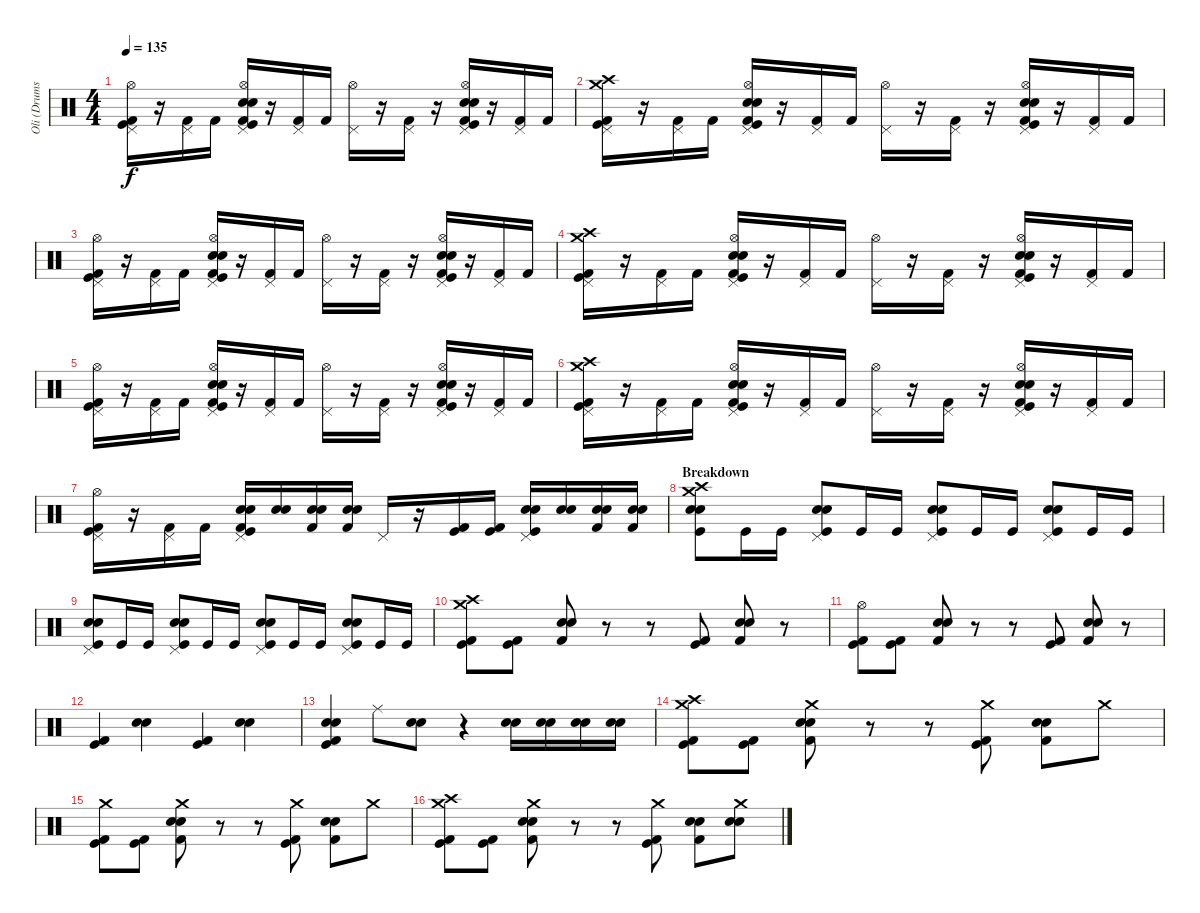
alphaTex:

\track ("Oli (Drums)" "Oli (Drums") {instrument percussion}
\staff {score}
\articulation defaults
\ts (4 4)
\tempo 135
\clef neutral
\ks c
("Kick (hit) 2" "Kick (hit)" "Pedal Hi-Hat (hit)" "Hi-Hat (open)").16{dy f} r.16 ("Kick (hit) 2" "Pedal Hi-Hat (hit)").16 "Kick (hit) 2".16 ("Kick (hit) 2" "Snare (hit) 2" "Pedal Hi-Hat (hit)" "Electric Snare (hit)" "Kick (hit)" "Hi-Hat (open)").16 r.16 ("Kick (hit) 2" "Pedal Hi-Hat (hit)").16 "Kick (hit) 2".16 ("Pedal Hi-Hat (hit)" "Hi-Hat (open)").16 r.16 ("Kick (hit) 2" "Pedal Hi-Hat (hit)").16 r.16 ("Kick (hit) 2" "Snare (hit) 2" "Pedal Hi-Hat (hit)" "Electric Snare (hit)" "Kick (hit)" "Hi-Hat (open)").16 r.16 ("Kick (hit) 2" "Pedal Hi-Hat (hit)").16 "Kick (hit) 2".16 |
("Kick (hit) 2" "Kick (hit)" "Pedal Hi-Hat (hit)" "Crash medium (hit)" "Crash high (hit)").16 r.16 ("Kick (hit) 2" "Pedal Hi-Hat (hit)").16 "Kick (hit) 2".16 ("Kick (hit) 2" "Snare (hit) 2" "Pedal Hi-Hat (hit)" "Electric Snare (hit)" "Kick (hit)" "Hi-Hat (open)").16 r.16 ("Kick (hit) 2" "Pedal Hi-Hat (hit)").16 "Kick (hit) 2".16 ("Pedal Hi-Hat (hit)" "Hi-Hat (open)").16 r.16 ("Kick (hit) 2" "Pedal Hi-Hat (hit)").16 r.16 ("Kick (hit) 2" "Snare (hit) 2" "Pedal Hi-Hat (hit)" "Electric Snare (hit)" "Kick (hit)" "Hi-Hat (open)").16 r.16 ("Kick (hit) 2" "Pedal Hi-Hat (hit)").16 "Kick (hit) 2".16 |
("Kick (hit) 2" "Kick (hit)" "Pedal Hi-Hat (hit)" "Hi-Hat (open)").16 r.16 ("Kick (hit) 2" "Pedal Hi-Hat (hit)").16 "Kick (hit) 2".16 ("Kick (hit) 2" "Snare (hit) 2" "Pedal Hi-Hat (hit)" "Electric Snare (hit)" "Kick (hit)" "Hi-Hat (open)").16 r.16 ("Kick (hit) 2" "Pedal Hi-Hat (hit)").16 "Kick (hit) 2".16 ("Pedal Hi-Hat (hit)" "Hi-Hat (open)").16 r.16 ("Kick (hit) 2" "Pedal Hi-Hat (hit)").16 r.16 ("Kick (hit) 2" "Snare (hit) 2" "Pedal Hi-Hat (hit)" "Electric Snare (hit)" "Kick (hit)" "Hi-Hat (open)").16 r.16 ("Kick (hit) 2" "Pedal Hi-Hat (hit)").16 "Kick (hit) 2".16 |
("Kick (hit) 2" "Kick (hit)" "Pedal Hi-Hat (hit)" "Crash medium (hit)" "Crash high (hit)").16 r.16 ("Kick (hit) 2" "Pedal Hi-Hat (hit)").16 "Kick (hit) 2".16 ("Kick (hit) 2" "Snare (hit) 2" "Pedal Hi-Hat (hit)" "Electric Snare (hit)" "Kick (hit)" "Hi-Hat (open)").16 r.16 ("Kick (hit) 2" "Pedal Hi-Hat (hit)").16 "Kick (hit) 2".16 ("Pedal Hi-Hat (hit)" "Hi-Hat (open)").16 r.16 ("Kick (hit) 2" "Pedal Hi-Hat (hit)").16 r.16 ("Kick (hit) 2" "Snare (hit) 2" "Pedal Hi-Hat (hit)" "Electric Snare (hit)" "Kick (hit)" "Hi-Hat (open)").16 r.16 ("Kick (hit) 2" "Pedal Hi-Hat (hit)").16 "Kick (hit) 2".16 |
("Kick (hit) 2" "Kick (hit)" "Pedal Hi-Hat (hit)" "Hi-Hat (open)").16 r.16 ("Kick (hit) 2" "Pedal Hi-Hat (hit)").16 "Kick (hit) 2".16 ("Kick (hit) 2" "Snare (hit) 2" "Pedal Hi-Hat (hit)" "Electric Snare (hit)" "Kick (hit)" "Hi-Hat (open)").16 r.16 ("Kick (hit) 2" "Pedal Hi-Hat (hit)").16 "Kick (hit) 2".16 ("Pedal Hi-Hat (hit)" "Hi-Hat (open)").16 r.16 ("Kick (hit) 2" "Pedal Hi-Hat (hit)").16 r.16 ("Kick (hit) 2" "Snare (hit) 2" "Pedal Hi-Hat (hit)" "Electric Snare (hit)" "Kick (hit)" "Hi-Hat (open)").16 r.16 ("Kick (hit) 2" "Pedal Hi-Hat (hit)").16 "Kick (hit) 2".16 |
("Kick (hit) 2" "Kick (hit)" "Pedal Hi-Hat (hit)" "Crash medium (hit)" "Crash high (hit)").16 r.16 ("Kick (hit) 2" "Pedal Hi-Hat (hit)").16 "Kick (hit) 2".16 ("Kick (hit) 2" "Snare (hit) 2" "Pedal Hi-Hat (hit)" "Electric Snare (hit)" "Kick (hit)" "Hi-Hat (open)").16 r.16 ("Kick (hit) 2" "Pedal Hi-Hat (hit)").16 "Kick (hit) 2".16 ("Pedal Hi-Hat (hit)" "Hi-Hat (open)").16 r.16 ("Kick (hit) 2" "Pedal Hi-Hat (hit)").16 r.16 ("Kick (hit) 2" "Snare (hit) 2" "Pedal Hi-Hat (hit)" "Electric Snare (hit)" "Kick (hit)" "Hi-Hat (open)").16 r.16 ("Kick (hit) 2" "Pedal Hi-Hat (hit)").16 "Kick (hit) 2".16 |
("Kick (hit) 2" "Kick (hit)" "Pedal Hi-Hat (hit)" "Hi-Hat (open)").16 r.16 ("Kick (hit) 2" "Pedal Hi-Hat (hit)").16 "Kick (hit) 2".16 ("Kick (hit) 2" "Snare (hit) 2" "Pedal Hi-Hat (hit)" "Electric Snare (hit)" "Kick (hit)").16 ("Snare (hit) 2" "Electric Snare (hit)").16 ("Kick (hit) 2" "Snare (hit) 2" "Electric Snare (hit)").16 ("Kick (hit) 2" "Snare (hit) 2" "Electric Snare (hit)").16 "Pedal Hi-Hat (hit)".16 r.16 ("Kick (hit)" "Kick (hit) 2").16 ("Kick (hit)" "Kick (hit) 2").16 ("Snare (hit) 2" "Pedal Hi-Hat (hit)" "Electric Snare (hit)" "Kick (hit)").16 ("Electric Snare (hit)" "Snare (hit) 2").16 ("Kick (hit) 2" "Electric Snare (hit)" "Snare (hit) 2").16 ("Kick (hit) 2" "Electric Snare (hit)" "Snare (hit) 2").16 |
\section ("" "Breakdown")
("Electric Snare (hit)" "Kick (hit)" "Snare (hit) 2" "Crash high (hit)" "Crash medium (hit)").8 "Kick (hit)".16 "Kick (hit)".16 ("Electric Snare (hit)" "Kick (hit)" "Snare (hit) 2" "Pedal Hi-Hat (hit)").8 "Kick (hit)".16 "Kick (hit)".16 ("Electric Snare (hit)" "Kick (hit)" "Snare (hit) 2" "Pedal Hi-Hat (hit)").8 "Kick (hit)".16 "Kick (hit)".16 ("Electric Snare (hit)" "Kick (hit)" "Snare (hit) 2" "Pedal Hi-Hat (hit)").8 "Kick (hit)".16 "Kick (hit)".16 |
("Electric Snare (hit)" "Kick (hit)" "Snare (hit) 2" "Pedal Hi-Hat (hit)").8 "Kick (hit)".16 "Kick (hit)".16 ("Electric Snare (hit)" "Kick (hit)" "Snare (hit) 2" "Pedal Hi-Hat (hit)").8 "Kick (hit)".16 "Kick (hit)".16 ("Electric Snare (hit)" "Kick (hit)" "Snare (hit) 2" "Pedal Hi-Hat (hit)").8 "Kick (hit)".16 "Kick (hit)".16 ("Electric Snare (hit)" "Kick (hit)" "Snare (hit) 2" "Pedal Hi-Hat (hit)").8 "Kick (hit)".16 "Kick (hit)".16 |
("Kick (hit) 2" "Kick (hit)" "Crash medium (hit)" "Crash high (hit)").8 ("Kick (hit) 2" "Kick (hit)").8 ("Kick (hit) 2" "Electric Snare (hit)" "Snare (hit) 2").8 r.8 r.8 ("Kick (hit) 2" "Kick (hit)").8 ("Kick (hit) 2" "Electric Snare (hit)" "Snare (hit) 2").8 r.8 |
("Kick (hit) 2" "Kick (hit)" "Hi-Hat (open)").8 ("Kick (hit) 2" "Kick (hit)").8 ("Kick (hit) 2" "Electric Snare (hit)" "Snare (hit) 2").8 r.8 r.8 ("Kick (hit) 2" "Kick (hit)").8 ("Kick (hit) 2" "Electric Snare (hit)" "Snare (hit) 2").8 r.8 |
("Kick (hit) 2" "Kick (hit)").4 ("Snare (hit) 2" "Electric Snare (hit)").4 ("Kick (hit) 2" "Kick (hit)").4 ("Snare (hit) 2" "Electric Snare (hit)").4 |
("Kick (hit) 2" "Snare (hit) 2" "Electric Snare (hit)" "Kick (hit)").4 "Ride (middle)".8 ("Snare (hit) 2" "Electric Snare (hit)").8 r.4 ("Snare (hit) 2" "Electric Snare (hit)").16 ("Snare (hit) 2" "Electric Snare (hit)").16 ("Snare (hit) 2" "Electric Snare (hit)").16 ("Snare (hit) 2" "Electric Snare (hit)").16 |
("Kick (hit) 2" "Kick (hit)" "Crash medium (hit)" "Crash high (hit)").8 ("Kick (hit) 2" "Kick (hit)").8 ("Kick (hit) 2" "Electric Snare (hit)" "Snare (hit) 2" "Crash medium (hit)").8 r.8 r.8 ("Kick (hit) 2" "Kick (hit)" "Crash medium (hit)").8 ("Kick (hit) 2" "Electric Snare (hit)" "Snare (hit) 2").8 "Crash medium (hit)".8 |
("Kick (hit) 2" "Kick (hit)" "Crash medium (hit)").8 ("Kick (hit) 2" "Kick (hit)").8 ("Kick (hit) 2" "Electric Snare (hit)" "Snare (hit) 2" "Crash medium (hit)").8 r.8 r.8 ("Kick (hit) 2" "Kick (hit)" "Crash medium (hit)").8 ("Kick (hit) 2" "Electric Snare (hit)" "Snare (hit) 2").8 "Crash medium (hit)".8 |
("Kick (hit) 2" "Kick (hit)" "Crash medium (hit)" "Crash high (hit)").8 ("Kick (hit) 2" "Kick (hit)").8 ("Kick (hit) 2" "Electric Snare (hit)" "Snare (hit) 2" "Crash medium (hit)").8 r.8 r.8 ("Kick (hit) 2" "Kick (hit)" "Crash medium (hit)").8 ("Kick (hit) 2" "Electric Snare (hit)" "Snare (hit) 2").8 ("Electric Snare (hit)" "Snare (hit) 2" "Crash medium (hit)").8
